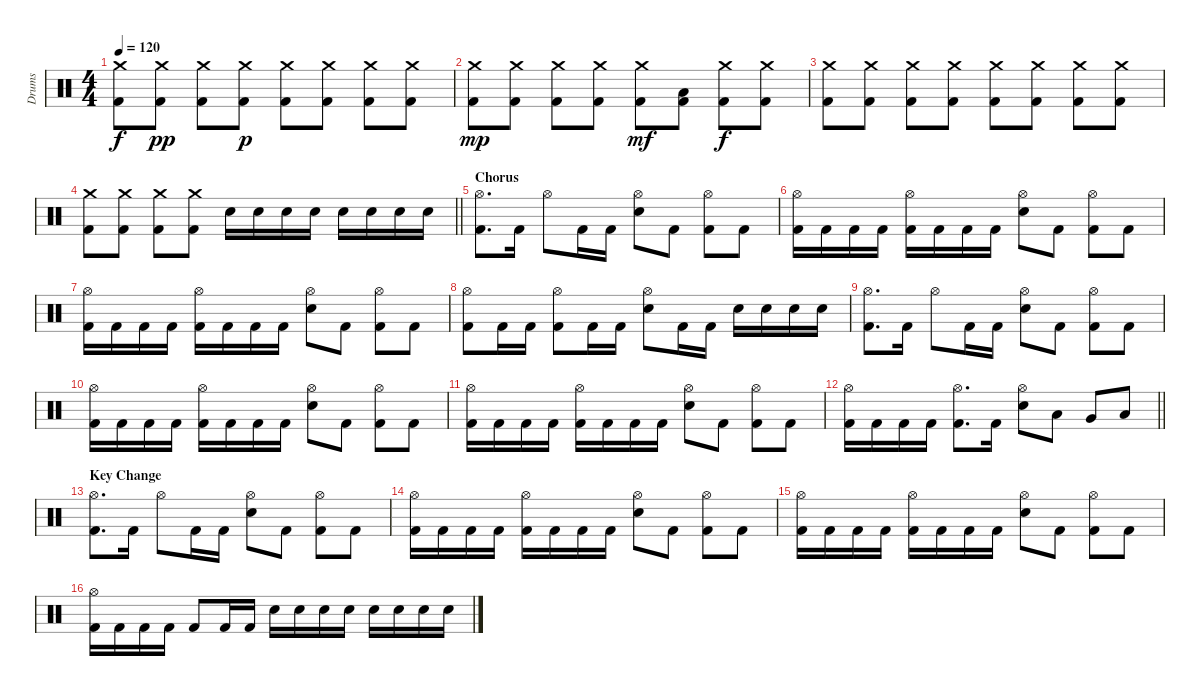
\track ("Drums" "Drums") {instrument percussion}
\staff {score}
\articulation defaults
\ts (4 4)
\tempo 120
\clef neutral
\ks c
("Crash medium (hit)" "Kick (hit) 2").8{dy f} ("Crash medium (hit)" "Kick (hit) 2").8{dy pp} ("Crash medium (hit)" "Kick (hit) 2").8 ("Crash medium (hit)" "Kick (hit) 2").8{dy p} ("Crash medium (hit)" "Kick (hit) 2").8 ("Crash medium (hit)" "Kick (hit) 2").8 ("Crash medium (hit)" "Kick (hit) 2").8 ("Crash medium (hit)" "Kick (hit) 2").8 |
("Crash medium (hit)" "Kick (hit) 2").8{dy mp} ("Crash medium (hit)" "Kick (hit) 2").8 ("Crash medium (hit)" "Kick (hit) 2").8 ("Crash medium (hit)" "Kick (hit) 2").8 ("Crash medium (hit)" "Kick (hit) 2").8{dy mf} ("Low Tom (hit)" "Kick (hit) 2").8 ("Crash medium (hit)" "Kick (hit) 2").8{dy f} ("Crash medium (hit)" "Kick (hit) 2").8 |
("Crash medium (hit)" "Kick (hit) 2").8 ("Crash medium (hit)" "Kick (hit) 2").8 ("Crash medium (hit)" "Kick (hit) 2").8 ("Crash medium (hit)" "Kick (hit) 2").8 ("Crash medium (hit)" "Kick (hit) 2").8 ("Crash medium (hit)" "Kick (hit) 2").8 ("Crash medium (hit)" "Kick (hit) 2").8 ("Crash medium (hit)" "Kick (hit) 2").8 |
\barLineRight lightlight
("Crash medium (hit)" "Kick (hit) 2").8 ("Crash medium (hit)" "Kick (hit) 2").8 ("Crash medium (hit)" "Kick (hit) 2").8 ("Crash medium (hit)" "Kick (hit) 2").8 "Snare (hit) 2".16 "Snare (hit) 2".16 "Snare (hit) 2".16 "Snare (hit) 2".16 "Snare (hit) 2".16 "Snare (hit) 2".16 "Snare (hit) 2".16 "Snare (hit) 2".16 |
\section ("" "Chorus")
("Hi-Hat (open)" "Kick (hit) 2").8{d} "Kick (hit) 2".16 "Hi-Hat (open)".8 "Kick (hit) 2".16 "Kick (hit) 2".16 ("Hi-Hat (open)" "Snare (hit) 2").8 "Kick (hit) 2".8 ("Hi-Hat (open)" "Kick (hit) 2").8 "Kick (hit) 2".8 |
("Hi-Hat (open)" "Kick (hit) 2").16 "Kick (hit) 2".16 "Kick (hit) 2".16 "Kick (hit) 2".16 ("Hi-Hat (open)" "Kick (hit) 2").16 "Kick (hit) 2".16 "Kick (hit) 2".16 "Kick (hit) 2".16 ("Hi-Hat (open)" "Snare (hit) 2").8 "Kick (hit) 2".8 ("Hi-Hat (open)" "Kick (hit) 2").8 "Kick (hit) 2".8 |
("Hi-Hat (open)" "Kick (hit) 2").16 "Kick (hit) 2".16 "Kick (hit) 2".16 "Kick (hit) 2".16 ("Hi-Hat (open)" "Kick (hit) 2").16 "Kick (hit) 2".16 "Kick (hit) 2".16 "Kick (hit) 2".16 ("Hi-Hat (open)" "Snare (hit) 2").8 "Kick (hit) 2".8 ("Hi-Hat (open)" "Kick (hit) 2").8 "Kick (hit) 2".8 |
("Hi-Hat (open)" "Kick (hit) 2").8 "Kick (hit) 2".16 "Kick (hit) 2".16 ("Hi-Hat (open)" "Kick (hit) 2").8 "Kick (hit) 2".16 "Kick (hit) 2".16 ("Hi-Hat (open)" "Snare (hit) 2").8 "Kick (hit) 2".16 "Kick (hit) 2".16 "Snare (hit) 2".16 "Snare (hit) 2".16 "Snare (hit) 2".16 "Snare (hit) 2".16 |
("Hi-Hat (open)" "Kick (hit) 2").8{d} "Kick (hit) 2".16 "Hi-Hat (open)".8 "Kick (hit) 2".16 "Kick (hit) 2".16 ("Hi-Hat (open)" "Snare (hit) 2").8 "Kick (hit) 2".8 ("Hi-Hat (open)" "Kick (hit) 2").8 "Kick (hit) 2".8 |
("Hi-Hat (open)" "Kick (hit) 2").16 "Kick (hit) 2".16 "Kick (hit) 2".16 "Kick (hit) 2".16 ("Hi-Hat (open)" "Kick (hit) 2").16 "Kick (hit) 2".16 "Kick (hit) 2".16 "Kick (hit) 2".16 ("Hi-Hat (open)" "Snare (hit) 2").8 "Kick (hit) 2".8 ("Hi-Hat (open)" "Kick (hit) 2").8 "Kick (hit) 2".8 |
("Hi-Hat (open)" "Kick (hit) 2").16 "Kick (hit) 2".16 "Kick (hit) 2".16 "Kick (hit) 2".16 ("Hi-Hat (open)" "Kick (hit) 2").16 "Kick (hit) 2".16 "Kick (hit) 2".16 "Kick (hit) 2".16 ("Hi-Hat (open)" "Snare (hit) 2").8 "Kick (hit) 2".8 ("Hi-Hat (open)" "Kick (hit) 2").8 "Kick (hit) 2".8 |
\barLineRight lightlight
("Hi-Hat (open)" "Kick (hit) 2").16 "Kick (hit) 2".16 "Kick (hit) 2".16 "Kick (hit) 2".16 ("Hi-Hat (open)" "Kick (hit) 2").8{d} "Kick (hit) 2".16 ("Hi-Hat (open)" "Snare (hit) 2").8 "Low Tom (hit)".8 "Very Low Tom (hit)".8 "Low Floor Tom (hit)".8 |
\section ("" "Key Change")
("Hi-Hat (open)" "Kick (hit) 2").8{d} "Kick (hit) 2".16 "Hi-Hat (open)".8 "Kick (hit) 2".16 "Kick (hit) 2".16 ("Hi-Hat (open)" "Snare (hit) 2").8 "Kick (hit) 2".8 ("Hi-Hat (open)" "Kick (hit) 2").8 "Kick (hit) 2".8 |
("Hi-Hat (open)" "Kick (hit) 2").16 "Kick (hit) 2".16 "Kick (hit) 2".16 "Kick (hit) 2".16 ("Hi-Hat (open)" "Kick (hit) 2").16 "Kick (hit) 2".16 "Kick (hit) 2".16 "Kick (hit) 2".16 ("Hi-Hat (open)" "Snare (hit) 2").8 "Kick (hit) 2".8 ("Hi-Hat (open)" "Kick (hit) 2").8 "Kick (hit) 2".8 |
("Hi-Hat (open)" "Kick (hit) 2").16 "Kick (hit) 2".16 "Kick (hit) 2".16 "Kick (hit) 2".16 ("Hi-Hat (open)" "Kick (hit) 2").16 "Kick (hit) 2".16 "Kick (hit) 2".16 "Kick (hit) 2".16 ("Hi-Hat (open)" "Snare (hit) 2").8 "Kick (hit) 2".8 ("Hi-Hat (open)" "Kick (hit) 2").8 "Kick (hit) 2".8 |
("Hi-Hat (open)" "Kick (hit) 2").16 "Kick (hit) 2".16 "Kick (hit) 2".16 "Kick (hit) 2".16 "Kick (hit) 2".8 "Kick (hit) 2".16 "Kick (hit) 2".16 "Snare (hit) 2".16 "Snare (hit) 2".16 "Snare (hit) 2".16 "Snare (hit) 2".16 "Snare (hit) 2".16 "Snare (hit) 2".16 "Snare (hit) 2".16 "Snare (hit) 2".16
